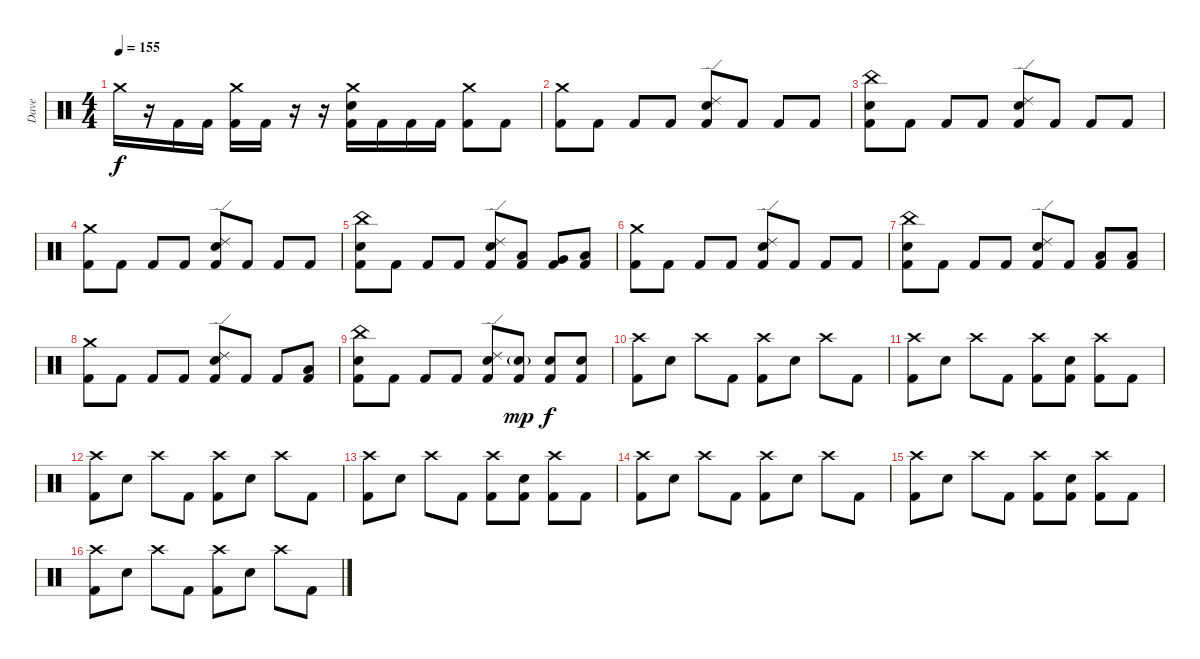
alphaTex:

\track ("Dave" "Dave") {instrument percussion}
\staff {score}
\articulation defaults
\ts (4 4)
\tempo 155
\clef neutral
\ks c "Crash medium (hit)".16{dy f}
r.16 "Kick (hit) 2".16 "Kick (hit) 2".16 ("Crash medium (hit)" "Kick (hit) 2").16 "Kick (hit) 2".16 r.16 r.16 ("Crash medium (hit)" "Snare (hit) 2" "Kick (hit) 2").16 "Kick (hit) 2".16 "Kick (hit) 2".16 "Kick (hit) 2".16 ("Crash medium (hit)" "Kick (hit) 2").8 "Kick (hit) 2".8 |
("Crash medium (hit)" "Kick (hit) 2").8 "Kick (hit) 2".8 "Kick (hit) 2".8 "Kick (hit) 2".8 ("Ride (edge) 2" "Snare (hit) 2" "Kick (hit) 2").8 "Kick (hit) 2".8 "Kick (hit) 2".8 "Kick (hit) 2".8 |
("China (hit)" "Snare (hit) 2" "Kick (hit) 2").8 "Kick (hit) 2".8 "Kick (hit) 2".8 "Kick (hit) 2".8 ("Ride (edge) 2" "Snare (hit) 2" "Kick (hit) 2").8 "Kick (hit) 2".8 "Kick (hit) 2".8 "Kick (hit) 2".8 |
("Crash medium (hit)" "Kick (hit) 2").8 "Kick (hit) 2".8 "Kick (hit) 2".8 "Kick (hit) 2".8 ("Ride (edge) 2" "Snare (hit) 2" "Kick (hit) 2").8 "Kick (hit) 2".8 "Kick (hit) 2".8 "Kick (hit) 2".8 |
("China (hit)" "Snare (hit) 2" "Kick (hit) 2").8 "Kick (hit) 2".8 "Kick (hit) 2".8 "Kick (hit) 2".8 ("Ride (edge) 2" "Snare (hit) 2" "Kick (hit) 2").8 ("Low Tom (hit)" "Kick (hit) 2").8 ("Very Low Tom (hit)" "Kick (hit) 2").8 ("Low Floor Tom (hit)" "Kick (hit) 2").8 |
("Crash medium (hit)" "Kick (hit) 2").8 "Kick (hit) 2".8 "Kick (hit) 2".8 "Kick (hit) 2".8 ("Ride (edge) 2" "Snare (hit) 2" "Kick (hit) 2").8 "Kick (hit) 2".8 "Kick (hit) 2".8 "Kick (hit) 2".8 |
("China (hit)" "Snare (hit) 2" "Kick (hit) 2").8 "Kick (hit) 2".8 "Kick (hit) 2".8 "Kick (hit) 2".8 ("Ride (edge) 2" "Snare (hit) 2" "Kick (hit) 2").8 "Kick (hit) 2".8 ("Low Floor Tom (hit)" "Kick (hit) 2").8 ("Low Floor Tom (hit)" "Kick (hit) 2").8 |
("Crash medium (hit)" "Kick (hit) 2").8 "Kick (hit) 2".8 "Kick (hit) 2".8 "Kick (hit) 2".8 ("Ride (edge) 2" "Snare (hit) 2" "Kick (hit) 2").8 "Kick (hit) 2".8 "Kick (hit) 2".8 ("Low Floor Tom (hit)" "Kick (hit) 2").8 |
("China (hit)" "Snare (hit) 2" "Kick (hit) 2").8 "Kick (hit) 2".8 "Kick (hit) 2".8 "Kick (hit) 2".8 ("Ride (edge) 2" "Snare (hit) 2" "Kick (hit) 2").8 ("Snare (hit) 2"{g} "Kick (hit) 2").8{dy mp} ("Snare (hit) 2" "Kick (hit) 2").8{dy f} ("Snare (hit) 2" "Kick (hit) 2").8 |
("Crash high (hit)" "Kick (hit) 2").8 "Snare (hit) 2".8 "Crash high (hit)".8 "Kick (hit) 2".8 ("Crash high (hit)" "Kick (hit) 2").8 "Snare (hit) 2".8 "Crash high (hit)".8 "Kick (hit) 2".8 |
("Crash high (hit)" "Kick (hit) 2").8 "Snare (hit) 2".8 "Crash high (hit)".8 "Kick (hit) 2".8 ("Crash high (hit)" "Kick (hit) 2").8 ("Snare (hit) 2" "Kick (hit) 2").8 ("Crash high (hit)" "Kick (hit) 2").8 "Kick (hit) 2".8 |
("Crash high (hit)" "Kick (hit) 2").8 "Snare (hit) 2".8 "Crash high (hit)".8 "Kick (hit) 2".8 ("Crash high (hit)" "Kick (hit) 2").8 "Snare (hit) 2".8 "Crash high (hit)".8 "Kick (hit) 2".8 |
("Crash high (hit)" "Kick (hit) 2").8 "Snare (hit) 2".8 "Crash high (hit)".8 "Kick (hit) 2".8 ("Crash high (hit)" "Kick (hit) 2").8 ("Snare (hit) 2" "Kick (hit) 2").8 ("Crash high (hit)" "Kick (hit) 2").8 "Kick (hit) 2".8 |
("Crash high (hit)" "Kick (hit) 2").8 "Snare (hit) 2".8 "Crash high (hit)".8 "Kick (hit) 2".8 ("Crash high (hit)" "Kick (hit) 2").8 "Snare (hit) 2".8 "Crash high (hit)".8 "Kick (hit) 2".8 |
("Crash high (hit)" "Kick (hit) 2").8 "Snare (hit) 2".8 "Crash high (hit)".8 "Kick (hit) 2".8 ("Crash high (hit)" "Kick (hit) 2").8 ("Snare (hit) 2" "Kick (hit) 2").8 ("Crash high (hit)" "Kick (hit) 2").8 "Kick (hit) 2".8 |
("Crash high (hit)" "Kick (hit) 2").8 "Snare (hit) 2".8 "Crash high (hit)".8 "Kick (hit) 2".8 ("Crash high (hit)" "Kick (hit) 2").8 "Snare (hit) 2".8 "Crash high (hit)".8 "Kick (hit) 2".8
